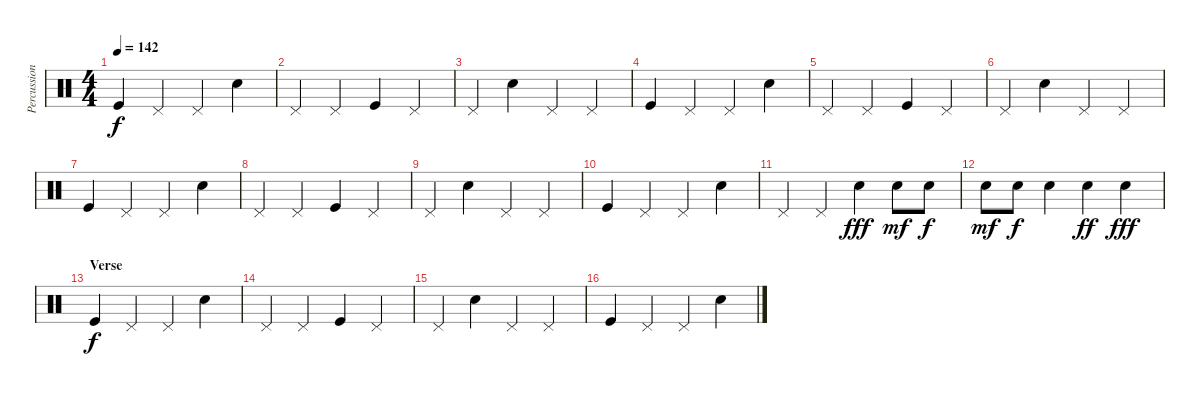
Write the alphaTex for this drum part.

\track ("Percussion" "Percussion") {instrument percussion}
\staff {score}
\articulation defaults
\ts (4 4)
\tempo 142
\clef neutral
\ks c "Kick (hit)".4{dy f} "Pedal Hi-Hat (hit)".4 "Pedal Hi-Hat (hit)".4 "Electric Snare (hit)".4
|
"Pedal Hi-Hat (hit)".4 "Pedal Hi-Hat (hit)".4 "Kick (hit)".4 "Pedal Hi-Hat (hit)".4 |
"Pedal Hi-Hat (hit)".4 "Electric Snare (hit)".4 "Pedal Hi-Hat (hit)".4 "Pedal Hi-Hat (hit)".4 |
"Kick (hit)".4 "Pedal Hi-Hat (hit)".4 "Pedal Hi-Hat (hit)".4 "Electric Snare (hit)".4 |
"Pedal Hi-Hat (hit)".4 "Pedal Hi-Hat (hit)".4 "Kick (hit)".4 "Pedal Hi-Hat (hit)".4 |
"Pedal Hi-Hat (hit)".4 "Electric Snare (hit)".4 "Pedal Hi-Hat (hit)".4 "Pedal Hi-Hat (hit)".4 |
"Kick (hit)".4 "Pedal Hi-Hat (hit)".4 "Pedal Hi-Hat (hit)".4 "Electric Snare (hit)".4 |
"Pedal Hi-Hat (hit)".4 "Pedal Hi-Hat (hit)".4 "Kick (hit)".4 "Pedal Hi-Hat (hit)".4 |
"Pedal Hi-Hat (hit)".4 "Electric Snare (hit)".4 "Pedal Hi-Hat (hit)".4 "Pedal Hi-Hat (hit)".4 |
"Kick (hit)".4 "Pedal Hi-Hat (hit)".4 "Pedal Hi-Hat (hit)".4 "Electric Snare (hit)".4 |
"Pedal Hi-Hat (hit)".4 "Pedal Hi-Hat (hit)".4 "Snare (hit) 2".4{dy fff} "Snare (hit) 2".8{dy mf} "Snare (hit) 2".8{dy f} |
"Snare (hit) 2".8{dy mf} "Snare (hit) 2".8{dy f} "Snare (hit) 2".4 "Snare (hit) 2".4{dy ff} "Snare (hit) 2".4{dy fff} |
\section ("" "Verse")
"Kick (hit)".4{dy f} "Pedal Hi-Hat (hit)".4 "Pedal Hi-Hat (hit)".4 "Electric Snare (hit)".4 |
"Pedal Hi-Hat (hit)".4 "Pedal Hi-Hat (hit)".4 "Kick (hit)".4 "Pedal Hi-Hat (hit)".4 |
"Pedal Hi-Hat (hit)".4 "Electric Snare (hit)".4 "Pedal Hi-Hat (hit)".4 "Pedal Hi-Hat (hit)".4 |
"Kick (hit)".4 "Pedal Hi-Hat (hit)".4 "Pedal Hi-Hat (hit)".4 "Electric Snare (hit)".4
